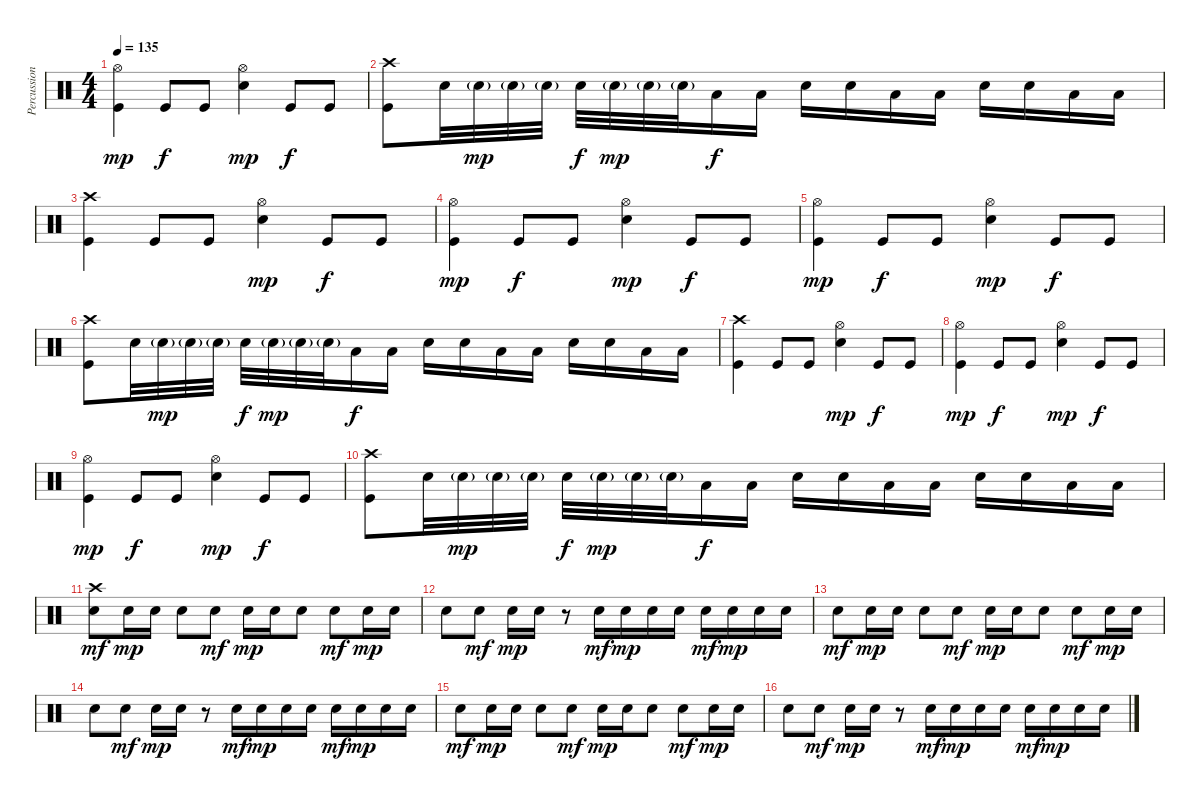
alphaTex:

\track ("Percussion" "Percussion") {instrument percussion}
\staff {score}
\articulation defaults
\ts (4 4)
\tempo 135
\clef neutral
\ks c
("Hi-Hat (open)" "Kick (hit)").4{dy mp} "Kick (hit)".8{dy f} "Kick (hit)".8 ("Hi-Hat (open)" "Electric Snare (hit)").4{dy mp} "Kick (hit)".8{dy f} "Kick (hit)".8 |
("Crash high (hit)" "Kick (hit)").8 "Electric Snare (hit)".32 "Electric Snare (hit)"{g}.32{dy mp} "Electric Snare (hit)"{g}.32 "Electric Snare (hit)"{g}.32 "Electric Snare (hit)".32{dy f} "Electric Snare (hit)"{g}.32{dy mp} "Electric Snare (hit)"{g}.32 "Electric Snare (hit)"{g}.32 "Low Tom (hit)".16{dy f} "Low Tom (hit)".16 "Electric Snare (hit)".16 "Electric Snare (hit)".16 "Low Tom (hit)".16 "Low Tom (hit)".16 "Electric Snare (hit)".16 "Electric Snare (hit)".16 "Low Tom (hit)".16 "Low Tom (hit)".16 |
("Crash high (hit)" "Kick (hit)").4 "Kick (hit)".8 "Kick (hit)".8 ("Hi-Hat (open)" "Electric Snare (hit)").4{dy mp} "Kick (hit)".8{dy f} "Kick (hit)".8 |
("Hi-Hat (open)" "Kick (hit)").4{dy mp} "Kick (hit)".8{dy f} "Kick (hit)".8 ("Hi-Hat (open)" "Electric Snare (hit)").4{dy mp} "Kick (hit)".8{dy f} "Kick (hit)".8 |
("Hi-Hat (open)" "Kick (hit)").4{dy mp} "Kick (hit)".8{dy f} "Kick (hit)".8 ("Hi-Hat (open)" "Electric Snare (hit)").4{dy mp} "Kick (hit)".8{dy f} "Kick (hit)".8 |
("Crash high (hit)" "Kick (hit)").8 "Electric Snare (hit)".32 "Electric Snare (hit)"{g}.32{dy mp} "Electric Snare (hit)"{g}.32 "Electric Snare (hit)"{g}.32 "Electric Snare (hit)".32{dy f} "Electric Snare (hit)"{g}.32{dy mp} "Electric Snare (hit)"{g}.32 "Electric Snare (hit)"{g}.32 "Low Tom (hit)".16{dy f} "Low Tom (hit)".16 "Electric Snare (hit)".16 "Electric Snare (hit)".16 "Low Tom (hit)".16 "Low Tom (hit)".16 "Electric Snare (hit)".16 "Electric Snare (hit)".16 "Low Tom (hit)".16 "Low Tom (hit)".16 |
("Crash high (hit)" "Kick (hit)").4 "Kick (hit)".8 "Kick (hit)".8 ("Hi-Hat (open)" "Electric Snare (hit)").4{dy mp} "Kick (hit)".8{dy f} "Kick (hit)".8 |
("Hi-Hat (open)" "Kick (hit)").4{dy mp} "Kick (hit)".8{dy f} "Kick (hit)".8 ("Hi-Hat (open)" "Electric Snare (hit)").4{dy mp} "Kick (hit)".8{dy f} "Kick (hit)".8 |
("Hi-Hat (open)" "Kick (hit)").4{dy mp} "Kick (hit)".8{dy f} "Kick (hit)".8 ("Hi-Hat (open)" "Electric Snare (hit)").4{dy mp} "Kick (hit)".8{dy f} "Kick (hit)".8 |
("Crash high (hit)" "Kick (hit)").8 "Electric Snare (hit)".32 "Electric Snare (hit)"{g}.32{dy mp} "Electric Snare (hit)"{g}.32 "Electric Snare (hit)"{g}.32 "Electric Snare (hit)".32{dy f} "Electric Snare (hit)"{g}.32{dy mp} "Electric Snare (hit)"{g}.32 "Electric Snare (hit)"{g}.32 "Low Tom (hit)".16{dy f} "Low Tom (hit)".16 "Electric Snare (hit)".16 "Electric Snare (hit)".16 "Low Tom (hit)".16 "Low Tom (hit)".16 "Electric Snare (hit)".16 "Electric Snare (hit)".16 "Low Tom (hit)".16 "Low Tom (hit)".16 |
("Crash high (hit)" "Electric Snare (hit)").8{dy mf} "Electric Snare (hit)".16{dy mp} "Electric Snare (hit)".16 "Electric Snare (hit)".8 "Electric Snare (hit)".8{dy mf} "Electric Snare (hit)".16{dy mp} "Electric Snare (hit)".16 "Electric Snare (hit)".8 "Electric Snare (hit)".8{dy mf} "Electric Snare (hit)".16{dy mp} "Electric Snare (hit)".16 |
"Electric Snare (hit)".8 "Electric Snare (hit)".8{dy mf} "Electric Snare (hit)".16{dy mp} "Electric Snare (hit)".16 r.8 "Electric Snare (hit)".16{dy mf} "Electric Snare (hit)".16{dy mp} "Electric Snare (hit)".16 "Electric Snare (hit)".16 "Electric Snare (hit)".16{dy mf} "Electric Snare (hit)".16{dy mp} "Electric Snare (hit)".16 "Electric Snare (hit)".16 |
"Electric Snare (hit)".8{dy mf} "Electric Snare (hit)".16{dy mp} "Electric Snare (hit)".16 "Electric Snare (hit)".8 "Electric Snare (hit)".8{dy mf} "Electric Snare (hit)".16{dy mp} "Electric Snare (hit)".16 "Electric Snare (hit)".8 "Electric Snare (hit)".8{dy mf} "Electric Snare (hit)".16{dy mp} "Electric Snare (hit)".16 |
"Electric Snare (hit)".8 "Electric Snare (hit)".8{dy mf} "Electric Snare (hit)".16{dy mp} "Electric Snare (hit)".16 r.8 "Electric Snare (hit)".16{dy mf} "Electric Snare (hit)".16{dy mp} "Electric Snare (hit)".16 "Electric Snare (hit)".16 "Electric Snare (hit)".16{dy mf} "Electric Snare (hit)".16{dy mp} "Electric Snare (hit)".16 "Electric Snare (hit)".16 |
"Electric Snare (hit)".8{dy mf} "Electric Snare (hit)".16{dy mp} "Electric Snare (hit)".16 "Electric Snare (hit)".8 "Electric Snare (hit)".8{dy mf} "Electric Snare (hit)".16{dy mp} "Electric Snare (hit)".16 "Electric Snare (hit)".8 "Electric Snare (hit)".8{dy mf} "Electric Snare (hit)".16{dy mp} "Electric Snare (hit)".16 |
"Electric Snare (hit)".8 "Electric Snare (hit)".8{dy mf} "Electric Snare (hit)".16{dy mp} "Electric Snare (hit)".16 r.8 "Electric Snare (hit)".16{dy mf} "Electric Snare (hit)".16{dy mp} "Electric Snare (hit)".16 "Electric Snare (hit)".16 "Electric Snare (hit)".16{dy mf} "Electric Snare (hit)".16{dy mp} "Electric Snare (hit)".16 "Electric Snare (hit)".16
